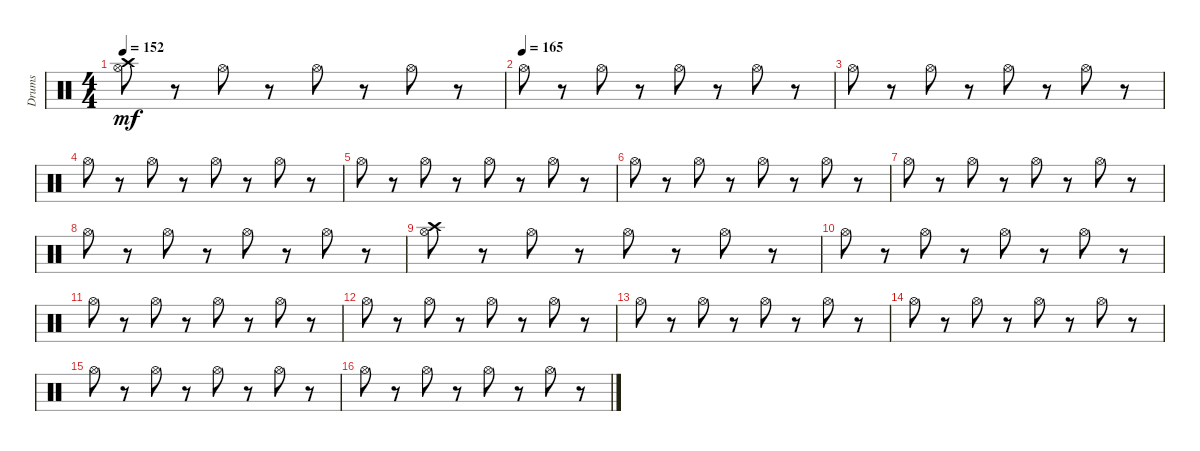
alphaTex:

\track ("Drums" "Drums") {instrument percussion}
\staff {score}
\articulation defaults
\ts (4 4)
\tempo 152
\clef neutral
\ks c
("Crash high (hit)" "Hi-Hat (open)").8{dy mf} r.8 "Hi-Hat (open)".8 r.8 "Hi-Hat (open)".8 r.8 "Hi-Hat (open)".8 r.8 |
\tempo (165)
"Hi-Hat (open)".8 r.8 "Hi-Hat (open)".8 r.8 "Hi-Hat (open)".8 r.8 "Hi-Hat (open)".8 r.8 |
"Hi-Hat (open)".8 r.8 "Hi-Hat (open)".8 r.8 "Hi-Hat (open)".8 r.8 "Hi-Hat (open)".8 r.8 |
"Hi-Hat (open)".8 r.8 "Hi-Hat (open)".8 r.8 "Hi-Hat (open)".8 r.8 "Hi-Hat (open)".8 r.8 |
"Hi-Hat (open)".8 r.8 "Hi-Hat (open)".8 r.8 "Hi-Hat (open)".8 r.8 "Hi-Hat (open)".8 r.8 |
"Hi-Hat (open)".8 r.8 "Hi-Hat (open)".8 r.8 "Hi-Hat (open)".8 r.8 "Hi-Hat (open)".8 r.8 |
"Hi-Hat (open)".8 r.8 "Hi-Hat (open)".8 r.8 "Hi-Hat (open)".8 r.8 "Hi-Hat (open)".8 r.8 |
"Hi-Hat (open)".8 r.8 "Hi-Hat (open)".8 r.8 "Hi-Hat (open)".8 r.8 "Hi-Hat (open)".8 r.8 |
("Hi-Hat (open)" "Crash high (hit)").8 r.8 "Hi-Hat (open)".8 r.8 "Hi-Hat (open)".8 r.8 "Hi-Hat (open)".8 r.8 |
"Hi-Hat (open)".8 r.8 "Hi-Hat (open)".8 r.8 "Hi-Hat (open)".8 r.8 "Hi-Hat (open)".8 r.8 |
"Hi-Hat (open)".8 r.8 "Hi-Hat (open)".8 r.8 "Hi-Hat (open)".8 r.8 "Hi-Hat (open)".8 r.8 |
"Hi-Hat (open)".8 r.8 "Hi-Hat (open)".8 r.8 "Hi-Hat (open)".8 r.8 "Hi-Hat (open)".8 r.8 |
"Hi-Hat (open)".8 r.8 "Hi-Hat (open)".8 r.8 "Hi-Hat (open)".8 r.8 "Hi-Hat (open)".8 r.8 |
"Hi-Hat (open)".8 r.8 "Hi-Hat (open)".8 r.8 "Hi-Hat (open)".8 r.8 "Hi-Hat (open)".8 r.8 |
"Hi-Hat (open)".8 r.8 "Hi-Hat (open)".8 r.8 "Hi-Hat (open)".8 r.8 "Hi-Hat (open)".8 r.8 |
"Hi-Hat (open)".8 r.8 "Hi-Hat (open)".8 r.8 "Hi-Hat (open)".8 r.8 "Hi-Hat (open)".8 r.8
